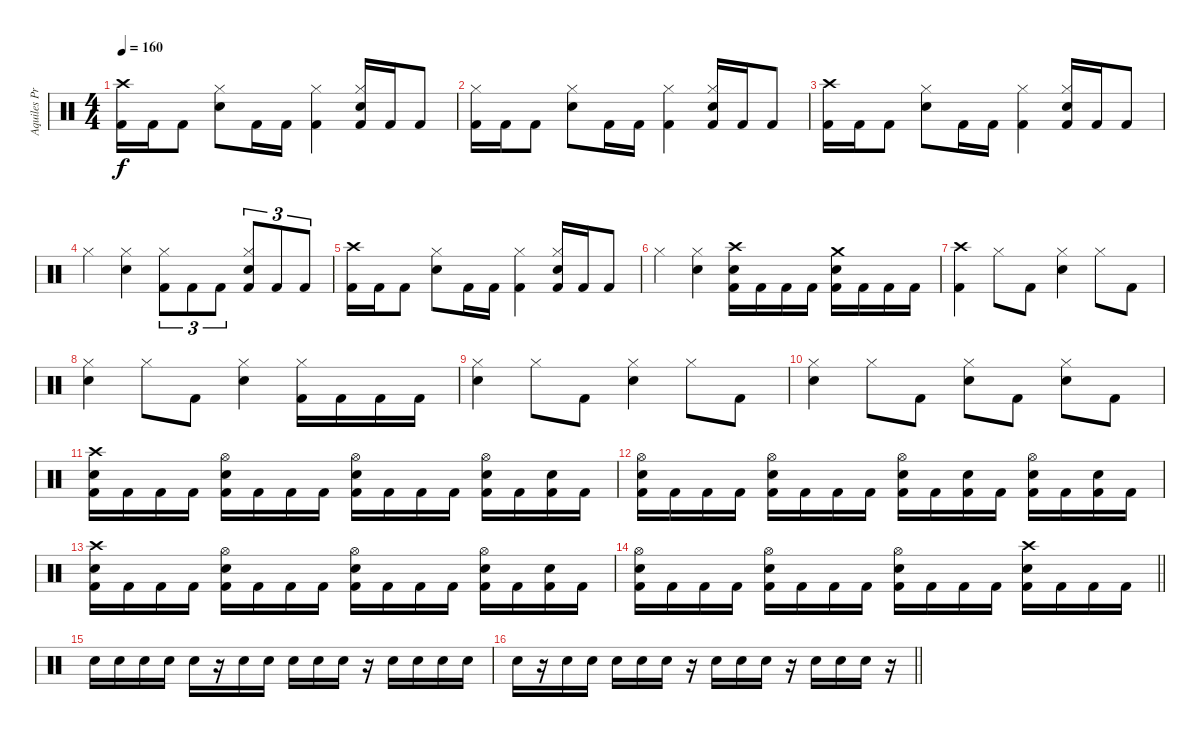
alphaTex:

\track ("Aquiles Priester" "Aquiles Pr") {instrument percussion}
\staff {score}
\articulation defaults
\ts (4 4)
\tempo 160
\clef neutral
\ks c
("Crash high (hit)" "Kick (hit) 2").16{dy f} "Kick (hit) 2".16 "Kick (hit) 2".8 ("Hi-Hat (closed)" "Electric Snare (hit)").8 "Kick (hit) 2".16 "Kick (hit) 2".16 ("Hi-Hat (closed)" "Kick (hit) 2").4 ("Hi-Hat (closed)" "Electric Snare (hit)" "Kick (hit) 2").16 "Kick (hit) 2".16 "Kick (hit) 2".8 |
("Hi-Hat (closed)" "Kick (hit) 2").16 "Kick (hit) 2".16 "Kick (hit) 2".8 ("Hi-Hat (closed)" "Electric Snare (hit)").8 "Kick (hit) 2".16 "Kick (hit) 2".16 ("Hi-Hat (closed)" "Kick (hit) 2").4 ("Hi-Hat (closed)" "Electric Snare (hit)" "Kick (hit) 2").16 "Kick (hit) 2".16 "Kick (hit) 2".8 |
("Crash high (hit)" "Kick (hit) 2").16 "Kick (hit) 2".16 "Kick (hit) 2".8 ("Hi-Hat (closed)" "Electric Snare (hit)").8 "Kick (hit) 2".16 "Kick (hit) 2".16 ("Hi-Hat (closed)" "Kick (hit) 2").4 ("Hi-Hat (closed)" "Electric Snare (hit)" "Kick (hit) 2").16 "Kick (hit) 2".16 "Kick (hit) 2".8 |
"Hi-Hat (closed)".4 ("Hi-Hat (closed)" "Electric Snare (hit)").4 ("Hi-Hat (closed)" "Kick (hit) 2").8{tu (3 2)} "Kick (hit) 2".8{tu (3 2)} "Kick (hit) 2".8{tu (3 2)} ("Hi-Hat (closed)" "Electric Snare (hit)" "Kick (hit) 2").8{tu (3 2)} "Kick (hit) 2".8{tu (3 2)} "Kick (hit) 2".8{tu (3 2)} |
("Crash high (hit)" "Kick (hit) 2").16 "Kick (hit) 2".16 "Kick (hit) 2".8 ("Hi-Hat (closed)" "Electric Snare (hit)").8 "Kick (hit) 2".16 "Kick (hit) 2".16 ("Hi-Hat (closed)" "Kick (hit) 2").4 ("Hi-Hat (closed)" "Electric Snare (hit)" "Kick (hit) 2").16 "Kick (hit) 2".16 "Kick (hit) 2".8 |
"Hi-Hat (closed)".4 ("Hi-Hat (closed)" "Electric Snare (hit)").4 ("Crash high (hit)" "Electric Snare (hit)" "Kick (hit) 2").16 "Kick (hit) 2".16 "Kick (hit) 2".16 "Kick (hit) 2".16 ("Crash medium (hit)" "Electric Snare (hit)" "Kick (hit) 2").16 "Kick (hit) 2".16 "Kick (hit) 2".16 "Kick (hit) 2".16 |
("Crash high (hit)" "Kick (hit) 2").4 "Hi-Hat (closed)".8 "Kick (hit) 2".8 ("Hi-Hat (closed)" "Electric Snare (hit)").4 "Hi-Hat (closed)".8 "Kick (hit) 2".8 |
("Hi-Hat (closed)" "Electric Snare (hit)").4 "Hi-Hat (closed)".8 "Kick (hit) 2".8 ("Hi-Hat (closed)" "Electric Snare (hit)").4 ("Hi-Hat (closed)" "Kick (hit) 2").16 "Kick (hit) 2".16 "Kick (hit) 2".16 "Kick (hit) 2".16 |
("Hi-Hat (closed)" "Electric Snare (hit)").4 "Hi-Hat (closed)".8 "Kick (hit) 2".8 ("Hi-Hat (closed)" "Electric Snare (hit)").4 "Hi-Hat (closed)".8 "Kick (hit) 2".8 |
("Hi-Hat (closed)" "Electric Snare (hit)").4 "Hi-Hat (closed)".8 "Kick (hit) 2".8 ("Hi-Hat (closed)" "Electric Snare (hit)").8 "Kick (hit) 2".8 ("Hi-Hat (closed)" "Electric Snare (hit)").8 "Kick (hit) 2".8 |
("Crash high (hit)" "Electric Snare (hit)" "Kick (hit) 2").16 "Kick (hit) 2".16 "Kick (hit) 2".16 "Kick (hit) 2".16 ("Hi-Hat (open)" "Electric Snare (hit)" "Kick (hit) 2").16 "Kick (hit) 2".16 "Kick (hit) 2".16 "Kick (hit) 2".16 ("Hi-Hat (open)" "Electric Snare (hit)" "Kick (hit) 2").16 "Kick (hit) 2".16 "Kick (hit) 2".16 "Kick (hit) 2".16 ("Hi-Hat (open)" "Electric Snare (hit)" "Kick (hit) 2").16 "Kick (hit) 2".16 ("Electric Snare (hit)" "Kick (hit) 2").16 "Kick (hit) 2".16 |
("Hi-Hat (open)" "Electric Snare (hit)" "Kick (hit) 2").16 "Kick (hit) 2".16 "Kick (hit) 2".16 "Kick (hit) 2".16 ("Hi-Hat (open)" "Electric Snare (hit)" "Kick (hit) 2").16 "Kick (hit) 2".16 "Kick (hit) 2".16 "Kick (hit) 2".16 ("Hi-Hat (open)" "Electric Snare (hit)" "Kick (hit) 2").16 "Kick (hit) 2".16 ("Electric Snare (hit)" "Kick (hit) 2").16 "Kick (hit) 2".16 ("Hi-Hat (open)" "Electric Snare (hit)" "Kick (hit) 2").16 "Kick (hit) 2".16 ("Electric Snare (hit)" "Kick (hit) 2").16 "Kick (hit) 2".16 |
("Crash high (hit)" "Electric Snare (hit)" "Kick (hit) 2").16 "Kick (hit) 2".16 "Kick (hit) 2".16 "Kick (hit) 2".16 ("Hi-Hat (open)" "Electric Snare (hit)" "Kick (hit) 2").16 "Kick (hit) 2".16 "Kick (hit) 2".16 "Kick (hit) 2".16 ("Hi-Hat (open)" "Electric Snare (hit)" "Kick (hit) 2").16 "Kick (hit) 2".16 "Kick (hit) 2".16 "Kick (hit) 2".16 ("Hi-Hat (open)" "Electric Snare (hit)" "Kick (hit) 2").16 "Kick (hit) 2".16 ("Electric Snare (hit)" "Kick (hit) 2").16 "Kick (hit) 2".16 |
\barLineRight lightlight
("Hi-Hat (open)" "Electric Snare (hit)" "Kick (hit) 2").16 "Kick (hit) 2".16 "Kick (hit) 2".16 "Kick (hit) 2".16 ("Hi-Hat (open)" "Electric Snare (hit)" "Kick (hit) 2").16 "Kick (hit) 2".16 "Kick (hit) 2".16 "Kick (hit) 2".16 ("Hi-Hat (open)" "Electric Snare (hit)" "Kick (hit) 2").16 "Kick (hit) 2".16 "Kick (hit) 2".16 "Kick (hit) 2".16 ("Crash high (hit)" "Electric Snare (hit)" "Kick (hit) 2").16 "Kick (hit) 2".16 "Kick (hit) 2".16 "Kick (hit) 2".16 |
"Electric Snare (hit)".16 "Electric Snare (hit)".16 "Electric Snare (hit)".16 "Electric Snare (hit)".16 "Electric Snare (hit)".16 r.16 "Electric Snare (hit)".16 "Electric Snare (hit)".16 "Electric Snare (hit)".16 "Electric Snare (hit)".16 "Electric Snare (hit)".16 r.16 "Electric Snare (hit)".16 "Electric Snare (hit)".16 "Electric Snare (hit)".16 "Electric Snare (hit)".16 |
\barLineRight lightlight "Electric Snare (hit)".16
r.16 "Electric Snare (hit)".16 "Electric Snare (hit)".16 "Electric Snare (hit)".16 "Electric Snare (hit)".16 "Electric Snare (hit)".16 r.16 "Electric Snare (hit)".16 "Electric Snare (hit)".16 "Electric Snare (hit)".16 r.16 "Electric Snare (hit)".16 "Electric Snare (hit)".16 "Electric Snare (hit)".16 r.16
